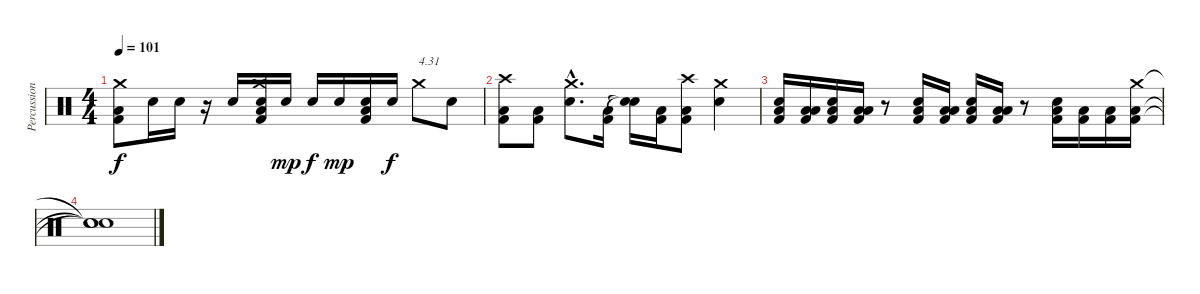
\track ("Percussion" "Percussion") {instrument percussion}
\staff {score}
\articulation defaults
\ts (4 4)
\tempo 101
\clef neutral
\ks c
("Kick (hit) 2" "Low Floor Tom (hit)" "Crash medium (hit)").8{dy f} "Snare (hit) 2".16 "Snare (hit) 2".16 r.16 "Snare (hit) 2".16 ("Kick (hit) 2" "Low Floor Tom (hit)" "Snare (hit) 2" "Crash medium (hit)").16 "Snare (hit) 2".16{dy mp} "Snare (hit) 2".16{dy f} "Snare (hit) 2".16{dy mp} ("Kick (hit) 2" "Low Floor Tom (hit)" "Snare (hit) 2").16 "Snare (hit) 2".16{dy f} "Crash medium (hit)".8{txt "4.31"} "Snare (hit) 2".8 |
("Kick (hit) 2" "Low Floor Tom (hit)" "Crash high (hit)").8 ("Kick (hit) 2" "Low Floor Tom (hit)").8 ("Snare (hit) 2"{hac} "Crash medium (hit)"{hac}).8{d} ("Kick (hit) 2" "Low Floor Tom (hit)").16 ("Snare (hit)"{t} "Snare (hit)"{t}).16 ("Kick (hit) 2" "Low Floor Tom (hit)").16 ("Kick (hit) 2" "Low Floor Tom (hit)" "Crash high (hit)").8 ("Snare (hit) 2" "Crash medium (hit)").4 |
("Kick (hit) 2" "Low Floor Tom (hit)" "Snare (hit) 2").16 ("Kick (hit) 2" "Low Floor Tom (hit)" "Low Tom (hit)").16 ("Kick (hit) 2" "Low Floor Tom (hit)" "Snare (hit) 2").16 ("Kick (hit) 2" "Low Floor Tom (hit)" "Low Tom (hit)").16 r.8 ("Kick (hit) 2" "Low Floor Tom (hit)" "Snare (hit) 2").16 ("Kick (hit) 2" "Low Floor Tom (hit)" "Low Tom (hit)").16 ("Kick (hit) 2" "Low Floor Tom (hit)" "Snare (hit) 2").16 ("Kick (hit) 2" "Low Floor Tom (hit)" "Low Tom (hit)").16 r.8 ("Kick (hit) 2" "Low Floor Tom (hit)" "Snare (hit) 2").16 ("Kick (hit) 2" "Low Floor Tom (hit)").16 ("Kick (hit) 2" "Low Floor Tom (hit)").16 ("Kick (hit) 2" "Low Floor Tom (hit)" "Crash medium (hit)").16 |
("Snare (hit)"{t} "Snare (hit)"{t} "Snare (hit)"{t}).1
